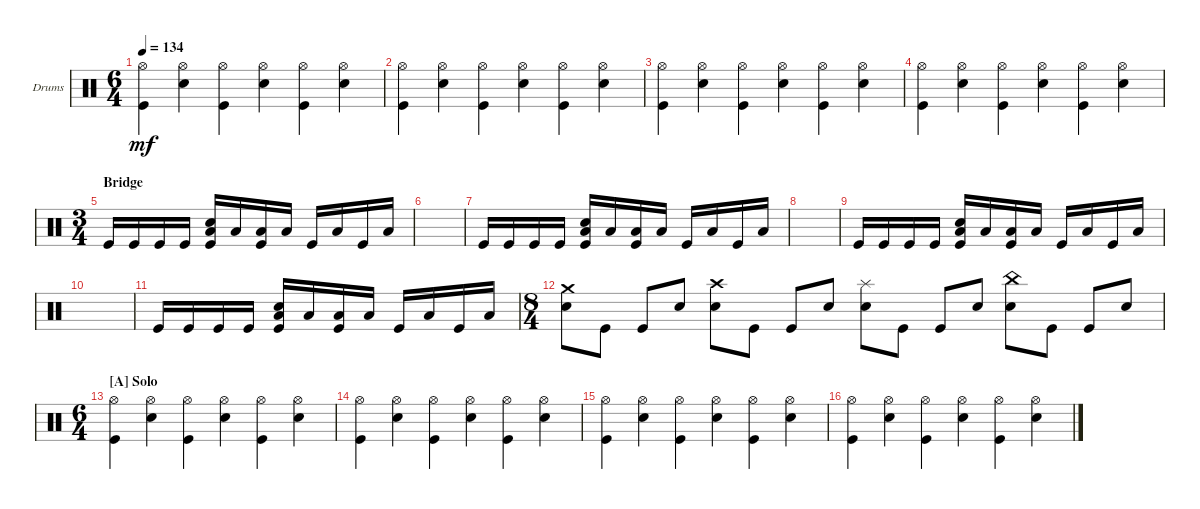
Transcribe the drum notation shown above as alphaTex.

\defaultSystemsLayout 4
\bracketExtendMode groupsimilarinstruments
\firstSystemTrackNameOrientation horizontal
\otherSystemsTrackNameOrientation horizontal
\track ("Drumkit" "Drums") {instrument percussion}
\staff {score}
\articulation defaults
\ts (6 4)
\tempo 134
\clef neutral
\ks c
("Kick (hit)" "Hi-Hat (open)").4{dy mf} ("Snare (hit) 2" "Hi-Hat (open)").4 ("Kick (hit)" "Hi-Hat (open)").4 ("Snare (hit) 2" "Hi-Hat (open)").4 ("Kick (hit)" "Hi-Hat (open)").4 ("Snare (hit) 2" "Hi-Hat (open)").4 |
("Kick (hit)" "Hi-Hat (open)").4 ("Snare (hit) 2" "Hi-Hat (open)").4 ("Kick (hit)" "Hi-Hat (open)").4 ("Snare (hit) 2" "Hi-Hat (open)").4 ("Kick (hit)" "Hi-Hat (open)").4 ("Snare (hit) 2" "Hi-Hat (open)").4 |
("Kick (hit)" "Hi-Hat (open)").4 ("Snare (hit) 2" "Hi-Hat (open)").4 ("Kick (hit)" "Hi-Hat (open)").4 ("Snare (hit) 2" "Hi-Hat (open)").4 ("Kick (hit)" "Hi-Hat (open)").4 ("Snare (hit) 2" "Hi-Hat (open)").4 |
("Kick (hit)" "Hi-Hat (open)").4 ("Snare (hit) 2" "Hi-Hat (open)").4 ("Kick (hit)" "Hi-Hat (open)").4 ("Snare (hit) 2" "Hi-Hat (open)").4 ("Kick (hit)" "Hi-Hat (open)").4 ("Snare (hit) 2" "Hi-Hat (open)").4 |
\ts (3 4)
\section ("" "Bridge")
"Kick (hit)".16 "Kick (hit)".16 "Kick (hit)".16 "Kick (hit)".16 ("Low Tom (hit)" "Kick (hit)" "Snare (hit) 2").16 "Low Tom (hit)".16 ("Low Tom (hit)" "Kick (hit)").16 "Low Tom (hit)".16 "Kick (hit)".16 "Low Tom (hit)".16 "Kick (hit)".16 "Low Tom (hit)".16 |
|
"Kick (hit)".16 "Kick (hit)".16 "Kick (hit)".16 "Kick (hit)".16 ("Low Tom (hit)" "Kick (hit)" "Snare (hit) 2").16 "Low Tom (hit)".16 ("Low Tom (hit)" "Kick (hit)").16 "Low Tom (hit)".16 "Kick (hit)".16 "Low Tom (hit)".16 "Kick (hit)".16 "Low Tom (hit)".16 |
|
"Kick (hit)".16 "Kick (hit)".16 "Kick (hit)".16 "Kick (hit)".16 ("Low Tom (hit)" "Kick (hit)" "Snare (hit) 2").16 "Low Tom (hit)".16 ("Low Tom (hit)" "Kick (hit)").16 "Low Tom (hit)".16 "Kick (hit)".16 "Low Tom (hit)".16 "Kick (hit)".16 "Low Tom (hit)".16 |
|
"Kick (hit)".16 "Kick (hit)".16 "Kick (hit)".16 "Kick (hit)".16 ("Low Tom (hit)" "Kick (hit)" "Snare (hit) 2").16 "Low Tom (hit)".16 ("Low Tom (hit)" "Kick (hit)").16 "Low Tom (hit)".16 "Kick (hit)".16 "Low Tom (hit)".16 "Kick (hit)".16 "Low Tom (hit)".16 |
\ts (8 4)
("Snare (hit) 2" "Crash medium (hit)").8 "Kick (hit)".8 "Kick (hit)".8 "Snare (hit) 2".8 ("Snare (hit) 2" "Crash high (hit)").8 "Kick (hit)".8 "Kick (hit)".8 "Snare (hit) 2".8 ("Snare (hit) 2" "Splash (hit)").8 "Kick (hit)".8 "Kick (hit)".8 "Snare (hit) 2".8 ("Snare (hit) 2" "China (hit)").8 "Kick (hit)".8 "Kick (hit)".8 "Snare (hit) 2".8 |
\ts (6 4)
\section ("A" "Solo")
("Kick (hit)" "Hi-Hat (open)").4 ("Snare (hit) 2" "Hi-Hat (open)").4 ("Kick (hit)" "Hi-Hat (open)").4 ("Snare (hit) 2" "Hi-Hat (open)").4 ("Kick (hit)" "Hi-Hat (open)").4 ("Snare (hit) 2" "Hi-Hat (open)").4 |
("Kick (hit)" "Hi-Hat (open)").4 ("Snare (hit) 2" "Hi-Hat (open)").4 ("Kick (hit)" "Hi-Hat (open)").4 ("Snare (hit) 2" "Hi-Hat (open)").4 ("Kick (hit)" "Hi-Hat (open)").4 ("Snare (hit) 2" "Hi-Hat (open)").4 |
("Kick (hit)" "Hi-Hat (open)").4 ("Snare (hit) 2" "Hi-Hat (open)").4 ("Kick (hit)" "Hi-Hat (open)").4 ("Snare (hit) 2" "Hi-Hat (open)").4 ("Kick (hit)" "Hi-Hat (open)").4 ("Snare (hit) 2" "Hi-Hat (open)").4 |
("Kick (hit)" "Hi-Hat (open)").4 ("Snare (hit) 2" "Hi-Hat (open)").4 ("Kick (hit)" "Hi-Hat (open)").4 ("Snare (hit) 2" "Hi-Hat (open)").4 ("Kick (hit)" "Hi-Hat (open)").4 ("Snare (hit) 2" "Hi-Hat (open)").4
